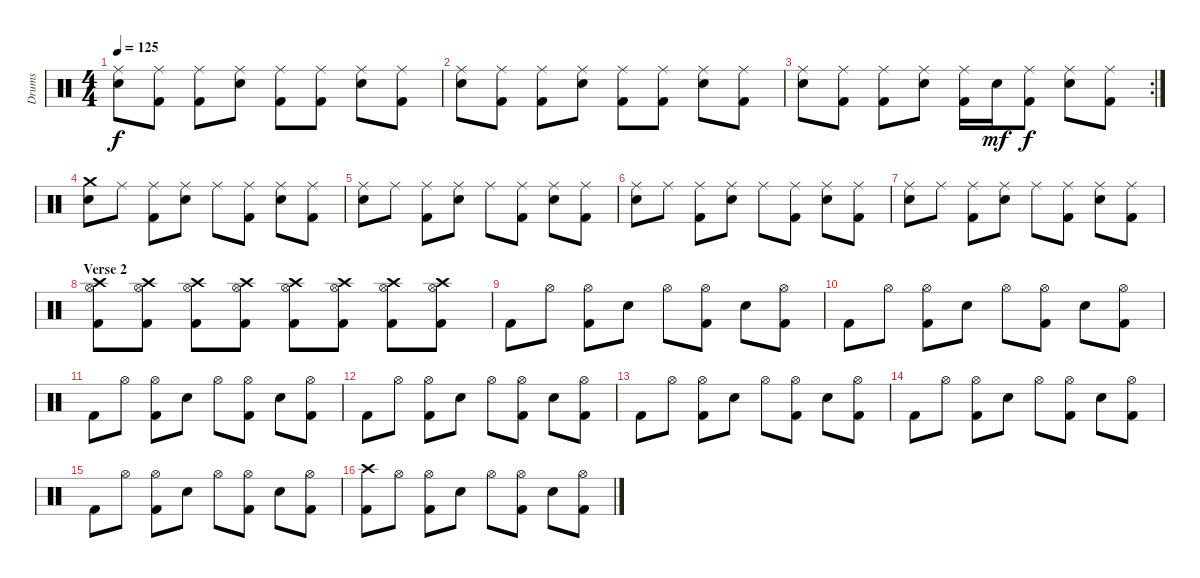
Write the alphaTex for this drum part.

\track ("Drums" "Drums") {instrument percussion}
\staff {score}
\articulation defaults
\ts (4 4)
\tempo 125
\clef neutral
\ks c
("Ride (middle)" "Snare (hit) 2").8{dy f} ("Ride (middle)" "Kick (hit) 2").8 ("Ride (middle)" "Kick (hit) 2").8 ("Ride (middle)" "Snare (hit) 2").8 ("Ride (middle)" "Kick (hit) 2").8 ("Ride (middle)" "Kick (hit) 2").8 ("Ride (middle)" "Snare (hit) 2").8 ("Ride (middle)" "Kick (hit) 2").8 |
("Ride (middle)" "Snare (hit) 2").8 ("Ride (middle)" "Kick (hit) 2").8 ("Ride (middle)" "Kick (hit) 2").8 ("Ride (middle)" "Snare (hit) 2").8 ("Ride (middle)" "Kick (hit) 2").8 ("Ride (middle)" "Kick (hit) 2").8 ("Ride (middle)" "Snare (hit) 2").8 ("Ride (middle)" "Kick (hit) 2").8 |
\rc 2
("Ride (middle)" "Snare (hit) 2").8 ("Ride (middle)" "Kick (hit) 2").8 ("Ride (middle)" "Kick (hit) 2").8 ("Ride (middle)" "Snare (hit) 2").8 ("Ride (middle)" "Kick (hit) 2").16 "Snare (hit) 2".16{dy mf} ("Ride (middle)" "Kick (hit) 2").8{dy f} ("Ride (middle)" "Snare (hit) 2").8 ("Ride (middle)" "Kick (hit) 2").8 |
("Crash medium (hit)" "Snare (hit) 2").8 "Ride (middle)".8 ("Ride (middle)" "Kick (hit) 2").8 ("Ride (middle)" "Snare (hit) 2").8 "Ride (middle)".8 ("Ride (middle)" "Kick (hit) 2").8 ("Ride (middle)" "Snare (hit) 2").8 ("Ride (middle)" "Kick (hit) 2").8 |
("Ride (middle)" "Snare (hit) 2").8 "Ride (middle)".8 ("Ride (middle)" "Kick (hit) 2").8 ("Ride (middle)" "Snare (hit) 2").8 "Ride (middle)".8 ("Ride (middle)" "Kick (hit) 2").8 ("Ride (middle)" "Snare (hit) 2").8 ("Ride (middle)" "Kick (hit) 2").8 |
("Ride (middle)" "Snare (hit) 2").8 "Ride (middle)".8 ("Ride (middle)" "Kick (hit) 2").8 ("Ride (middle)" "Snare (hit) 2").8 "Ride (middle)".8 ("Ride (middle)" "Kick (hit) 2").8 ("Ride (middle)" "Snare (hit) 2").8 ("Ride (middle)" "Kick (hit) 2").8 |
("Ride (middle)" "Snare (hit) 2").8 "Ride (middle)".8 ("Ride (middle)" "Kick (hit) 2").8 ("Ride (middle)" "Snare (hit) 2").8 "Ride (middle)".8 ("Ride (middle)" "Kick (hit) 2").8 ("Ride (middle)" "Snare (hit) 2").8 ("Ride (middle)" "Kick (hit) 2").8 |
\section ("" "Verse 2")
("Crash high (hit)" "Hi-Hat (open)" "Kick (hit) 2").8 ("Crash high (hit)" "Hi-Hat (open)" "Kick (hit) 2").8 ("Crash high (hit)" "Hi-Hat (open)" "Kick (hit) 2").8 ("Crash high (hit)" "Hi-Hat (open)" "Kick (hit) 2").8 ("Crash high (hit)" "Hi-Hat (open)" "Kick (hit) 2").8 ("Crash high (hit)" "Hi-Hat (open)" "Kick (hit) 2").8 ("Crash high (hit)" "Hi-Hat (open)" "Kick (hit) 2").8 ("Crash high (hit)" "Hi-Hat (open)" "Kick (hit) 2").8 |
"Kick (hit) 2".8 "Hi-Hat (open)".8 ("Hi-Hat (open)" "Kick (hit) 2").8 "Snare (hit) 2".8 "Hi-Hat (open)".8 ("Hi-Hat (open)" "Kick (hit) 2").8 "Snare (hit) 2".8 ("Hi-Hat (open)" "Kick (hit) 2").8 |
"Kick (hit) 2".8 "Hi-Hat (open)".8 ("Hi-Hat (open)" "Kick (hit) 2").8 "Snare (hit) 2".8 "Hi-Hat (open)".8 ("Hi-Hat (open)" "Kick (hit) 2").8 "Snare (hit) 2".8 ("Hi-Hat (open)" "Kick (hit) 2").8 |
"Kick (hit) 2".8 "Hi-Hat (open)".8 ("Hi-Hat (open)" "Kick (hit) 2").8 "Snare (hit) 2".8 "Hi-Hat (open)".8 ("Hi-Hat (open)" "Kick (hit) 2").8 "Snare (hit) 2".8 ("Hi-Hat (open)" "Kick (hit) 2").8 |
"Kick (hit) 2".8 "Hi-Hat (open)".8 ("Hi-Hat (open)" "Kick (hit) 2").8 "Snare (hit) 2".8 "Hi-Hat (open)".8 ("Hi-Hat (open)" "Kick (hit) 2").8 "Snare (hit) 2".8 ("Hi-Hat (open)" "Kick (hit) 2").8 |
"Kick (hit) 2".8 "Hi-Hat (open)".8 ("Hi-Hat (open)" "Kick (hit) 2").8 "Snare (hit) 2".8 "Hi-Hat (open)".8 ("Hi-Hat (open)" "Kick (hit) 2").8 "Snare (hit) 2".8 ("Hi-Hat (open)" "Kick (hit) 2").8 |
"Kick (hit) 2".8 "Hi-Hat (open)".8 ("Hi-Hat (open)" "Kick (hit) 2").8 "Snare (hit) 2".8 "Hi-Hat (open)".8 ("Hi-Hat (open)" "Kick (hit) 2").8 "Snare (hit) 2".8 ("Hi-Hat (open)" "Kick (hit) 2").8 |
"Kick (hit) 2".8 "Hi-Hat (open)".8 ("Hi-Hat (open)" "Kick (hit) 2").8 "Snare (hit) 2".8 "Hi-Hat (open)".8 ("Hi-Hat (open)" "Kick (hit) 2").8 "Snare (hit) 2".8 ("Hi-Hat (open)" "Kick (hit) 2").8 |
("Crash high (hit)" "Kick (hit) 2").8 "Hi-Hat (open)".8 ("Hi-Hat (open)" "Kick (hit) 2").8 "Snare (hit) 2".8 "Hi-Hat (open)".8 ("Hi-Hat (open)" "Kick (hit) 2").8 "Snare (hit) 2".8 ("Hi-Hat (open)" "Kick (hit) 2").8
